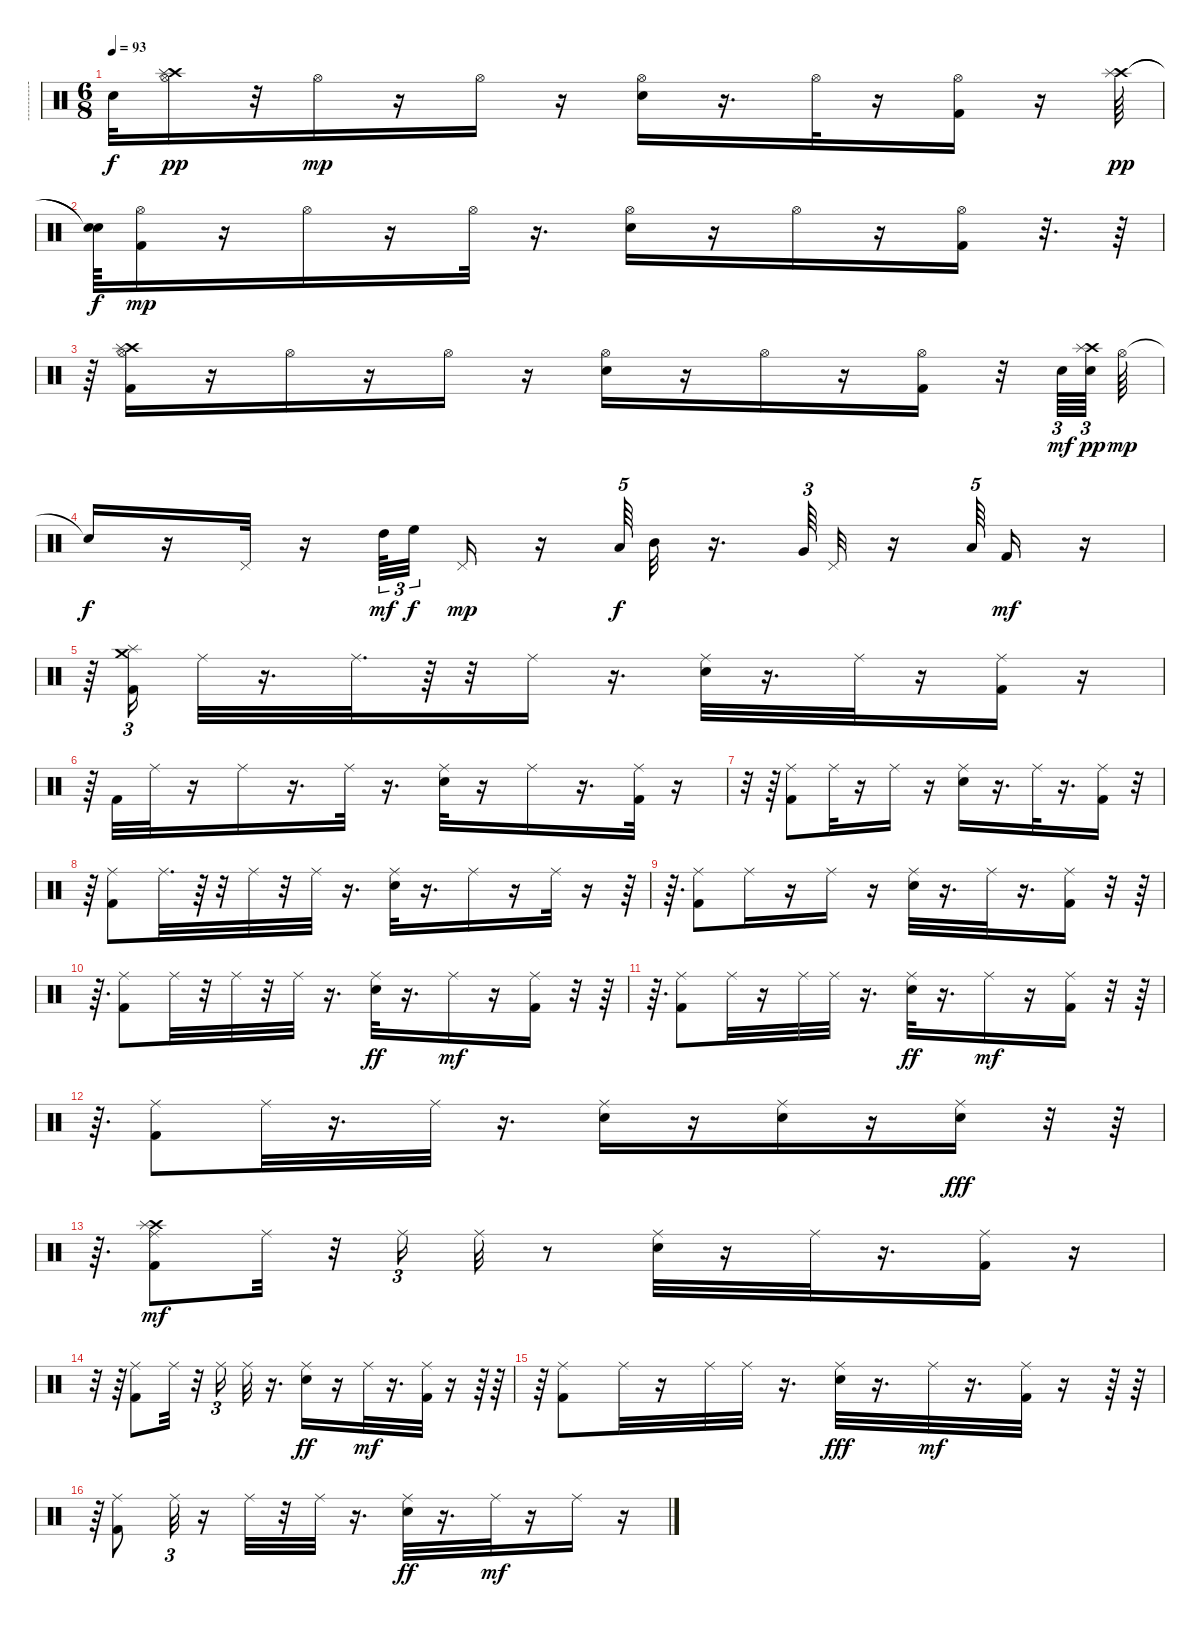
\track ("-----------------------------------" "----------") {instrument percussion}
\staff {score}
\articulation defaults
\ts (6 8)
\tempo 93
\clef neutral
\ks c "Snare (hit)"{t}.32{dy f}
("Crash high (hit)" "Hi-Hat (open)" "Splash (hit)").16{dy pp} r.32 "Hi-Hat (open)".16{dy mp} r.16 "Hi-Hat (open)".16 r.16 ("Snare (hit) 2" "Hi-Hat (open)").16 r.16{d} "Hi-Hat (open)".32 r.16 ("Kick (hit) 2" "Hi-Hat (open)").16 r.16 ("Crash high (hit)" "Splash (hit)").64{dy pp} |
("Snare (hit)"{t} "Snare (hit)"{t}).64{dy f} ("Kick (hit) 2" "Hi-Hat (open)").16{dy mp} r.16 "Hi-Hat (open)".16 r.16 "Hi-Hat (open)".32 r.16{d} ("Snare (hit) 2" "Hi-Hat (open)").16 r.16 "Hi-Hat (open)".16 r.16 ("Kick (hit) 2" "Hi-Hat (open)").16 r.32{d} r.64 |
r.64 ("Kick (hit) 2" "Crash high (hit)" "Splash (hit)" "Hi-Hat (open)").16 r.16 "Hi-Hat (open)".16 r.16 "Hi-Hat (open)".16 r.16 ("Snare (hit) 2" "Hi-Hat (open)").16 r.16 "Hi-Hat (open)".16 r.16 ("Kick (hit) 2" "Hi-Hat (open)").16 r.32 "Snare (hit) 2".64{tu (3 2) dy mf} ("Crash high (hit)" "Splash (hit)" "Electric Snare (hit)").64{tu (3 2) dy pp} "Hi-Hat (open)".64{dy mp} |
"Snare (hit)"{t}.16{dy f} r.16 "Pedal Hi-Hat (hit)".32 r.16 "High Tom (hit)".64{tu (3 2) dy mf} "High Floor Tom (hit)".32{tu (3 2) dy f beam splitsecondary} "Pedal Hi-Hat (hit)".16{dy mp} r.16 "Low Tom (hit)".64{tu (5 4) dy f} "Mid Tom (hit)".32 r.16{d} "Very Low Tom (hit)".64{tu (3 2)} "Pedal Hi-Hat (hit)".32 r.16 "Low Floor Tom (hit)".64{tu (5 4)} "Kick (hit) 2".16{dy mf} r.16 |
r.64 ("Splash (hit)" "Crash medium (hit)" "Kick (hit) 2").16{tu (3 2)} "Ride (middle)".32 r.16{d} "Ride (middle)".32{d} r.64 r.32 "Ride (middle)".16 r.16{d} ("Ride (middle)" "Snare (hit) 2").32 r.16{d} "Ride (middle)".32 r.16 ("Kick (hit) 2" "Ride (middle)").16 r.16 |
r.64 "Kick (hit) 2".32 "Ride (middle)".32 r.16 "Ride (middle)".16 r.16{d} "Ride (middle)".32 r.16{d} ("Ride (middle)" "Snare (hit) 2").32 r.16 "Ride (middle)".16 r.16{d} ("Kick (hit) 2" "Ride (middle)").32 r.16 |
r.32 r.64 ("Kick (hit) 2" "Ride (middle)").8 "Ride (middle)".32 r.16 "Ride (middle)".16 r.16 ("Ride (middle)" "Snare (hit) 2").16 r.16{d} "Ride (middle)".32 r.16{d} ("Kick (hit) 2" "Ride (middle)").16 r.32 |
r.64 ("Kick (hit) 2" "Ride (middle)").8 "Ride (middle)".32{d} r.64 r.32 "Ride (middle)".32 r.32 "Ride (middle)".32 r.16{d} ("Ride (middle)" "Snare (hit) 2").32 r.16{d} "Ride (middle)".16 r.16 "Ride (middle)".32 r.16 r.64 |
r.64{d} ("Kick (hit) 2" "Ride (middle)").8 "Ride (middle)".16 r.16 "Ride (middle)".16 r.16 ("Ride (middle)" "Snare (hit) 2").32 r.16{d} "Ride (middle)".32 r.16{d} ("Kick (hit) 2" "Ride (middle)").16 r.32 r.64 |
r.64{d} ("Kick (hit) 2" "Ride (middle)").8 "Ride (middle)".32 r.32 "Ride (middle)".32 r.32 "Ride (middle)".32 r.16{d} ("Ride (middle)" "Snare (hit) 2").32{dy ff} r.16{d} "Ride (middle)".16{dy mf} r.16 ("Kick (hit) 2" "Ride (middle)").16 r.32 r.64 |
r.64{d} ("Kick (hit) 2" "Ride (middle)").8 "Ride (middle)".32 r.16 "Ride (middle)".32 "Ride (middle)".32 r.16{d} ("Ride (middle)" "Snare (hit) 2").32{dy ff} r.16{d} "Ride (middle)".16{dy mf} r.16 ("Kick (hit) 2" "Ride (middle)").16 r.32 r.64 |
r.64{d} ("Kick (hit) 2" "Ride (middle)").8 "Ride (middle)".32 r.16{d} "Ride (middle)".32 r.16{d} ("Ride (middle)" "Snare (hit) 2").16 r.16 ("Ride (middle)" "Snare (hit) 2").16 r.16 ("Ride (middle)" "Snare (hit) 2").16{dy fff} r.32 r.64 |
r.64{d} ("Crash high (hit)" "Splash (hit)" "Kick (hit) 2" "Ride (middle)").8{dy mf} "Ride (middle)".32 r.32 "Ride (middle)".16{tu (3 2)} "Ride (middle)".32 r.8 ("Ride (middle)" "Snare (hit) 2").32 r.16 "Ride (middle)".32 r.16{d} ("Kick (hit) 2" "Ride (middle)").16 r.16 |
r.32 r.64 ("Kick (hit) 2" "Ride (middle)").8 "Ride (middle)".32 r.32 "Ride (middle)".16{tu (3 2)} "Ride (middle)".32 r.16{d} ("Ride (middle)" "Snare (hit) 2").16{dy ff} r.16 "Ride (middle)".32{dy mf} r.16{d} ("Kick (hit) 2" "Ride (middle)").32 r.16 r.64 r.64 |
r.64{tu (5 4)} ("Kick (hit) 2" "Ride (middle)").8 "Ride (middle)".32 r.16 "Ride (middle)".32 "Ride (middle)".32 r.16{d} ("Ride (middle)" "Snare (hit) 2").32{dy fff} r.16{d} "Ride (middle)".32{dy mf} r.16{d} ("Kick (hit) 2" "Ride (middle)").32 r.16 r.64 r.64 |
r.64{tu (5 4)} ("Kick (hit) 2" "Ride (middle)").8 "Ride (middle)".32{tu (3 2)} r.16 "Ride (middle)".32 r.32 "Ride (middle)".32 r.16{d} ("Ride (middle)" "Snare (hit) 2").32{dy ff} r.16{d} "Ride (middle)".32{dy mf} r.16 "Ride (middle)".16 r.16
